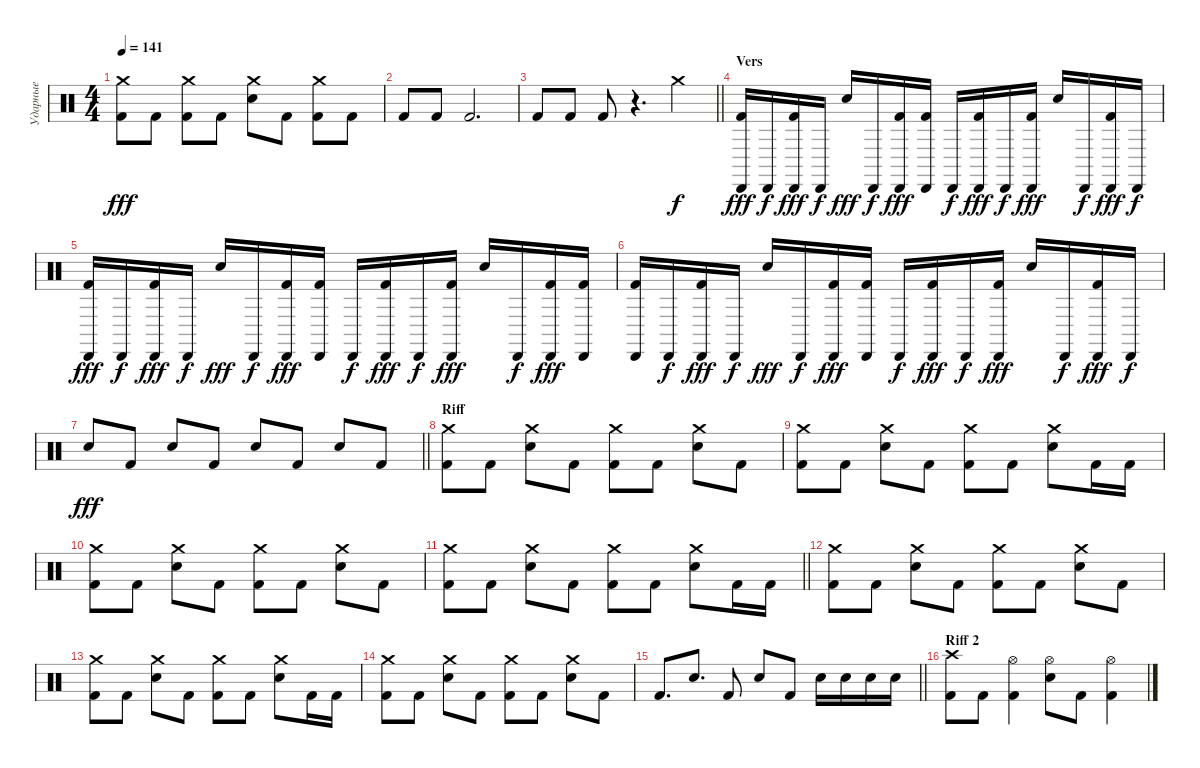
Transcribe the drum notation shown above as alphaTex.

\track ("Ударные" "Ударные") {instrument percussion}
\staff {score}
\articulation defaults
\ts (4 4)
\tempo 141
\clef neutral
\ks c
("Crash medium (hit)" "Kick (hit) 2").8{dy fff} "Kick (hit) 2".8 ("Crash medium (hit)" "Kick (hit) 2").8 "Kick (hit) 2".8 ("Crash medium (hit)" "Electric Snare (hit)").8 "Kick (hit) 2".8 ("Crash medium (hit)" "Kick (hit) 2").8 "Kick (hit) 2".8 |
"Kick (hit) 2".8 "Kick (hit) 2".8 "Kick (hit) 2".2{d} |
\barLineRight lightlight "Kick (hit) 2".8 "Kick (hit) 2".8 "Kick (hit) 2".8
r.4{d} "Crash medium (hit)".4{dy f} |
\section ("" "Vers")
("Cabasa (hit)" "Kick (hit) 2").16{dy fff} "Cabasa (hit)".16{dy f} ("Cabasa (hit)" "Kick (hit) 2").16{dy fff} "Cabasa (hit)".16{dy f} "Electric Snare (hit)".16{dy fff} "Cabasa (hit)".16{dy f} ("Cabasa (hit)" "Kick (hit) 2").16{dy fff} ("Cabasa (hit)" "Kick (hit) 2").16 "Cabasa (hit)".16{dy f} ("Cabasa (hit)" "Kick (hit) 2").16{dy fff} "Cabasa (hit)".16{dy f} ("Cabasa (hit)" "Kick (hit) 2").16{dy fff} "Electric Snare (hit)".16 "Cabasa (hit)".16{dy f} ("Cabasa (hit)" "Kick (hit) 2").16{dy fff} "Cabasa (hit)".16{dy f} |
("Cabasa (hit)" "Kick (hit) 2").16{dy fff} "Cabasa (hit)".16{dy f} ("Cabasa (hit)" "Kick (hit) 2").16{dy fff} "Cabasa (hit)".16{dy f} "Electric Snare (hit)".16{dy fff} "Cabasa (hit)".16{dy f} ("Cabasa (hit)" "Kick (hit) 2").16{dy fff} ("Cabasa (hit)" "Kick (hit) 2").16 "Cabasa (hit)".16{dy f} ("Cabasa (hit)" "Kick (hit) 2").16{dy fff} "Cabasa (hit)".16{dy f} ("Cabasa (hit)" "Kick (hit) 2").16{dy fff} "Electric Snare (hit)".16 "Cabasa (hit)".16{dy f} ("Cabasa (hit)" "Kick (hit) 2").16{dy fff} ("Cabasa (hit)" "Kick (hit) 2").16 |
("Cabasa (hit)" "Kick (hit) 2").16 "Cabasa (hit)".16{dy f} ("Cabasa (hit)" "Kick (hit) 2").16{dy fff} "Cabasa (hit)".16{dy f} "Electric Snare (hit)".16{dy fff} "Cabasa (hit)".16{dy f} ("Cabasa (hit)" "Kick (hit) 2").16{dy fff} ("Cabasa (hit)" "Kick (hit) 2").16 "Cabasa (hit)".16{dy f} ("Cabasa (hit)" "Kick (hit) 2").16{dy fff} "Cabasa (hit)".16{dy f} ("Cabasa (hit)" "Kick (hit) 2").16{dy fff} "Electric Snare (hit)".16 "Cabasa (hit)".16{dy f} ("Cabasa (hit)" "Kick (hit) 2").16{dy fff} "Cabasa (hit)".16{dy f} |
\barLineRight lightlight "Electric Snare (hit)".8{dy fff} "Kick (hit) 2".8 "Electric Snare (hit)".8 "Kick (hit) 2".8 "Electric Snare (hit)".8 "Kick (hit) 2".8 "Electric Snare (hit)".8 "Kick (hit) 2".8
|
\section ("" "Riff")
("Crash medium (hit)" "Kick (hit) 2").8 "Kick (hit) 2".8 ("Crash medium (hit)" "Electric Snare (hit)").8 "Kick (hit) 2".8 ("Crash medium (hit)" "Kick (hit) 2").8 "Kick (hit) 2".8 ("Crash medium (hit)" "Electric Snare (hit)").8 "Kick (hit) 2".8 |
("Crash medium (hit)" "Kick (hit) 2").8 "Kick (hit) 2".8 ("Crash medium (hit)" "Electric Snare (hit)").8 "Kick (hit) 2".8 ("Crash medium (hit)" "Kick (hit) 2").8 "Kick (hit) 2".8 ("Crash medium (hit)" "Electric Snare (hit)").8 "Kick (hit) 2".16 "Kick (hit) 2".16 |
("Crash medium (hit)" "Kick (hit) 2").8 "Kick (hit) 2".8 ("Crash medium (hit)" "Electric Snare (hit)").8 "Kick (hit) 2".8 ("Crash medium (hit)" "Kick (hit) 2").8 "Kick (hit) 2".8 ("Crash medium (hit)" "Electric Snare (hit)").8 "Kick (hit) 2".8 |
\barLineRight lightlight
("Crash medium (hit)" "Kick (hit) 2").8 "Kick (hit) 2".8 ("Crash medium (hit)" "Electric Snare (hit)").8 "Kick (hit) 2".8 ("Crash medium (hit)" "Kick (hit) 2").8 "Kick (hit) 2".8 ("Crash medium (hit)" "Electric Snare (hit)").8 "Kick (hit) 2".16 "Kick (hit) 2".16 |
("Crash medium (hit)" "Kick (hit) 2").8 "Kick (hit) 2".8 ("Crash medium (hit)" "Electric Snare (hit)").8 "Kick (hit) 2".8 ("Crash medium (hit)" "Kick (hit) 2").8 "Kick (hit) 2".8 ("Crash medium (hit)" "Electric Snare (hit)").8 "Kick (hit) 2".8 |
("Crash medium (hit)" "Kick (hit) 2").8 "Kick (hit) 2".8 ("Crash medium (hit)" "Electric Snare (hit)").8 "Kick (hit) 2".8 ("Crash medium (hit)" "Kick (hit) 2").8 "Kick (hit) 2".8 ("Crash medium (hit)" "Electric Snare (hit)").8 "Kick (hit) 2".16 "Kick (hit) 2".16 |
("Crash medium (hit)" "Kick (hit) 2").8 "Kick (hit) 2".8 ("Crash medium (hit)" "Electric Snare (hit)").8 "Kick (hit) 2".8 ("Crash medium (hit)" "Kick (hit) 2").8 "Kick (hit) 2".8 ("Crash medium (hit)" "Electric Snare (hit)").8 "Kick (hit) 2".8 |
\barLineRight lightlight "Kick (hit) 2".8{d} "Electric Snare (hit)".8{d} "Kick (hit) 2".8 "Electric Snare (hit)".8 "Kick (hit) 2".8 "Electric Snare (hit)".16 "Electric Snare (hit)".16 "Electric Snare (hit)".16 "Electric Snare (hit)".16
|
\section ("" "Riff 2")
("Crash high (hit)" "Kick (hit) 2").8 "Kick (hit) 2".8 ("Hi-Hat (open)" "Kick (hit) 2").4 ("Hi-Hat (open)" "Electric Snare (hit)").8 "Kick (hit) 2".8 ("Hi-Hat (open)" "Kick (hit) 2").4
